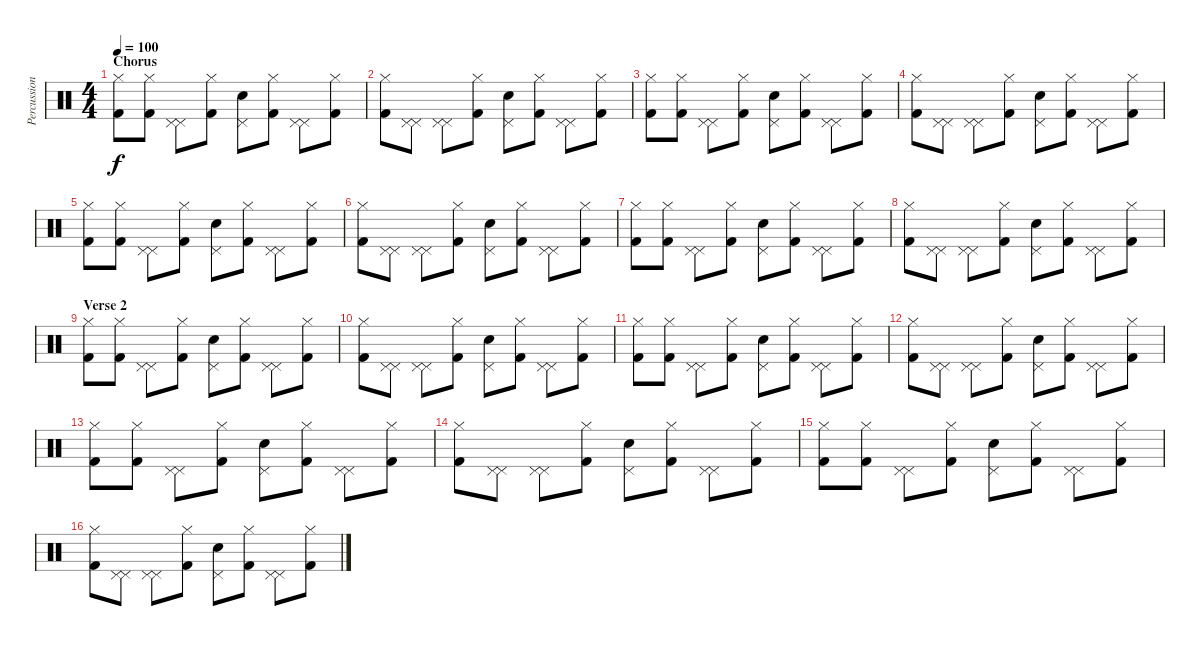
\track ("Percussion" "Percussion") {instrument percussion}
\staff {score}
\articulation defaults
\ts (4 4)
\section ("" "Chorus")
\tempo 100
\clef neutral
\ks c
("Hi-Hat (closed)" "Kick (hit) 2").8{dy f} ("Hi-Hat (closed)" "Kick (hit) 2").8 ("Pedal Hi-Hat (hit)" "Pedal Hi-Hat (hit)").8 ("Hi-Hat (closed)" "Kick (hit) 2").8 ("Snare (hit) 2" "Pedal Hi-Hat (hit)").8 ("Hi-Hat (closed)" "Kick (hit) 2").8 ("Pedal Hi-Hat (hit)" "Pedal Hi-Hat (hit)").8 ("Hi-Hat (closed)" "Kick (hit) 2").8 |
("Hi-Hat (closed)" "Kick (hit) 2").8 ("Pedal Hi-Hat (hit)" "Pedal Hi-Hat (hit)").8 ("Pedal Hi-Hat (hit)" "Pedal Hi-Hat (hit)").8 ("Hi-Hat (closed)" "Kick (hit) 2").8 ("Snare (hit) 2" "Pedal Hi-Hat (hit)").8 ("Hi-Hat (closed)" "Kick (hit) 2").8 ("Pedal Hi-Hat (hit)" "Pedal Hi-Hat (hit)").8 ("Hi-Hat (closed)" "Kick (hit) 2").8 |
("Hi-Hat (closed)" "Kick (hit) 2").8 ("Hi-Hat (closed)" "Kick (hit) 2").8 ("Pedal Hi-Hat (hit)" "Pedal Hi-Hat (hit)").8 ("Hi-Hat (closed)" "Kick (hit) 2").8 ("Snare (hit) 2" "Pedal Hi-Hat (hit)").8 ("Hi-Hat (closed)" "Kick (hit) 2").8 ("Pedal Hi-Hat (hit)" "Pedal Hi-Hat (hit)").8 ("Hi-Hat (closed)" "Kick (hit) 2").8 |
("Hi-Hat (closed)" "Kick (hit) 2").8 ("Pedal Hi-Hat (hit)" "Pedal Hi-Hat (hit)").8 ("Pedal Hi-Hat (hit)" "Pedal Hi-Hat (hit)").8 ("Hi-Hat (closed)" "Kick (hit) 2").8 ("Snare (hit) 2" "Pedal Hi-Hat (hit)").8 ("Hi-Hat (closed)" "Kick (hit) 2").8 ("Pedal Hi-Hat (hit)" "Pedal Hi-Hat (hit)").8 ("Hi-Hat (closed)" "Kick (hit) 2").8 |
("Hi-Hat (closed)" "Kick (hit) 2").8 ("Hi-Hat (closed)" "Kick (hit) 2").8 ("Pedal Hi-Hat (hit)" "Pedal Hi-Hat (hit)").8 ("Hi-Hat (closed)" "Kick (hit) 2").8 ("Snare (hit) 2" "Pedal Hi-Hat (hit)").8 ("Hi-Hat (closed)" "Kick (hit) 2").8 ("Pedal Hi-Hat (hit)" "Pedal Hi-Hat (hit)").8 ("Hi-Hat (closed)" "Kick (hit) 2").8 |
("Hi-Hat (closed)" "Kick (hit) 2").8 ("Pedal Hi-Hat (hit)" "Pedal Hi-Hat (hit)").8 ("Pedal Hi-Hat (hit)" "Pedal Hi-Hat (hit)").8 ("Hi-Hat (closed)" "Kick (hit) 2").8 ("Snare (hit) 2" "Pedal Hi-Hat (hit)").8 ("Hi-Hat (closed)" "Kick (hit) 2").8 ("Pedal Hi-Hat (hit)" "Pedal Hi-Hat (hit)").8 ("Hi-Hat (closed)" "Kick (hit) 2").8 |
("Hi-Hat (closed)" "Kick (hit) 2").8 ("Hi-Hat (closed)" "Kick (hit) 2").8 ("Pedal Hi-Hat (hit)" "Pedal Hi-Hat (hit)").8 ("Hi-Hat (closed)" "Kick (hit) 2").8 ("Snare (hit) 2" "Pedal Hi-Hat (hit)").8 ("Hi-Hat (closed)" "Kick (hit) 2").8 ("Pedal Hi-Hat (hit)" "Pedal Hi-Hat (hit)").8 ("Hi-Hat (closed)" "Kick (hit) 2").8 |
("Hi-Hat (closed)" "Kick (hit) 2").8 ("Pedal Hi-Hat (hit)" "Pedal Hi-Hat (hit)").8 ("Pedal Hi-Hat (hit)" "Pedal Hi-Hat (hit)").8 ("Hi-Hat (closed)" "Kick (hit) 2").8 ("Snare (hit) 2" "Pedal Hi-Hat (hit)").8 ("Hi-Hat (closed)" "Kick (hit) 2").8 ("Pedal Hi-Hat (hit)" "Pedal Hi-Hat (hit)").8 ("Hi-Hat (closed)" "Kick (hit) 2").8 |
\section ("" "Verse 2")
("Hi-Hat (closed)" "Kick (hit) 2").8 ("Hi-Hat (closed)" "Kick (hit) 2").8 ("Pedal Hi-Hat (hit)" "Pedal Hi-Hat (hit)").8 ("Hi-Hat (closed)" "Kick (hit) 2").8 ("Snare (hit) 2" "Pedal Hi-Hat (hit)").8 ("Hi-Hat (closed)" "Kick (hit) 2").8 ("Pedal Hi-Hat (hit)" "Pedal Hi-Hat (hit)").8 ("Hi-Hat (closed)" "Kick (hit) 2").8 |
("Hi-Hat (closed)" "Kick (hit) 2").8 ("Pedal Hi-Hat (hit)" "Pedal Hi-Hat (hit)").8 ("Pedal Hi-Hat (hit)" "Pedal Hi-Hat (hit)").8 ("Hi-Hat (closed)" "Kick (hit) 2").8 ("Snare (hit) 2" "Pedal Hi-Hat (hit)").8 ("Hi-Hat (closed)" "Kick (hit) 2").8 ("Pedal Hi-Hat (hit)" "Pedal Hi-Hat (hit)").8 ("Hi-Hat (closed)" "Kick (hit) 2").8 |
("Hi-Hat (closed)" "Kick (hit) 2").8 ("Hi-Hat (closed)" "Kick (hit) 2").8 ("Pedal Hi-Hat (hit)" "Pedal Hi-Hat (hit)").8 ("Hi-Hat (closed)" "Kick (hit) 2").8 ("Snare (hit) 2" "Pedal Hi-Hat (hit)").8 ("Hi-Hat (closed)" "Kick (hit) 2").8 ("Pedal Hi-Hat (hit)" "Pedal Hi-Hat (hit)").8 ("Hi-Hat (closed)" "Kick (hit) 2").8 |
("Hi-Hat (closed)" "Kick (hit) 2").8 ("Pedal Hi-Hat (hit)" "Pedal Hi-Hat (hit)").8 ("Pedal Hi-Hat (hit)" "Pedal Hi-Hat (hit)").8 ("Hi-Hat (closed)" "Kick (hit) 2").8 ("Snare (hit) 2" "Pedal Hi-Hat (hit)").8 ("Hi-Hat (closed)" "Kick (hit) 2").8 ("Pedal Hi-Hat (hit)" "Pedal Hi-Hat (hit)").8 ("Hi-Hat (closed)" "Kick (hit) 2").8 |
("Hi-Hat (closed)" "Kick (hit) 2").8 ("Hi-Hat (closed)" "Kick (hit) 2").8 ("Pedal Hi-Hat (hit)" "Pedal Hi-Hat (hit)").8 ("Hi-Hat (closed)" "Kick (hit) 2").8 ("Snare (hit) 2" "Pedal Hi-Hat (hit)").8 ("Hi-Hat (closed)" "Kick (hit) 2").8 ("Pedal Hi-Hat (hit)" "Pedal Hi-Hat (hit)").8 ("Hi-Hat (closed)" "Kick (hit) 2").8 |
("Hi-Hat (closed)" "Kick (hit) 2").8 ("Pedal Hi-Hat (hit)" "Pedal Hi-Hat (hit)").8 ("Pedal Hi-Hat (hit)" "Pedal Hi-Hat (hit)").8 ("Hi-Hat (closed)" "Kick (hit) 2").8 ("Snare (hit) 2" "Pedal Hi-Hat (hit)").8 ("Hi-Hat (closed)" "Kick (hit) 2").8 ("Pedal Hi-Hat (hit)" "Pedal Hi-Hat (hit)").8 ("Hi-Hat (closed)" "Kick (hit) 2").8 |
("Hi-Hat (closed)" "Kick (hit) 2").8 ("Hi-Hat (closed)" "Kick (hit) 2").8 ("Pedal Hi-Hat (hit)" "Pedal Hi-Hat (hit)").8 ("Hi-Hat (closed)" "Kick (hit) 2").8 ("Snare (hit) 2" "Pedal Hi-Hat (hit)").8 ("Hi-Hat (closed)" "Kick (hit) 2").8 ("Pedal Hi-Hat (hit)" "Pedal Hi-Hat (hit)").8 ("Hi-Hat (closed)" "Kick (hit) 2").8 |
("Hi-Hat (closed)" "Kick (hit) 2").8 ("Pedal Hi-Hat (hit)" "Pedal Hi-Hat (hit)").8 ("Pedal Hi-Hat (hit)" "Pedal Hi-Hat (hit)").8 ("Hi-Hat (closed)" "Kick (hit) 2").8 ("Snare (hit) 2" "Pedal Hi-Hat (hit)").8 ("Hi-Hat (closed)" "Kick (hit) 2").8 ("Pedal Hi-Hat (hit)" "Pedal Hi-Hat (hit)").8 ("Hi-Hat (closed)" "Kick (hit) 2").8
